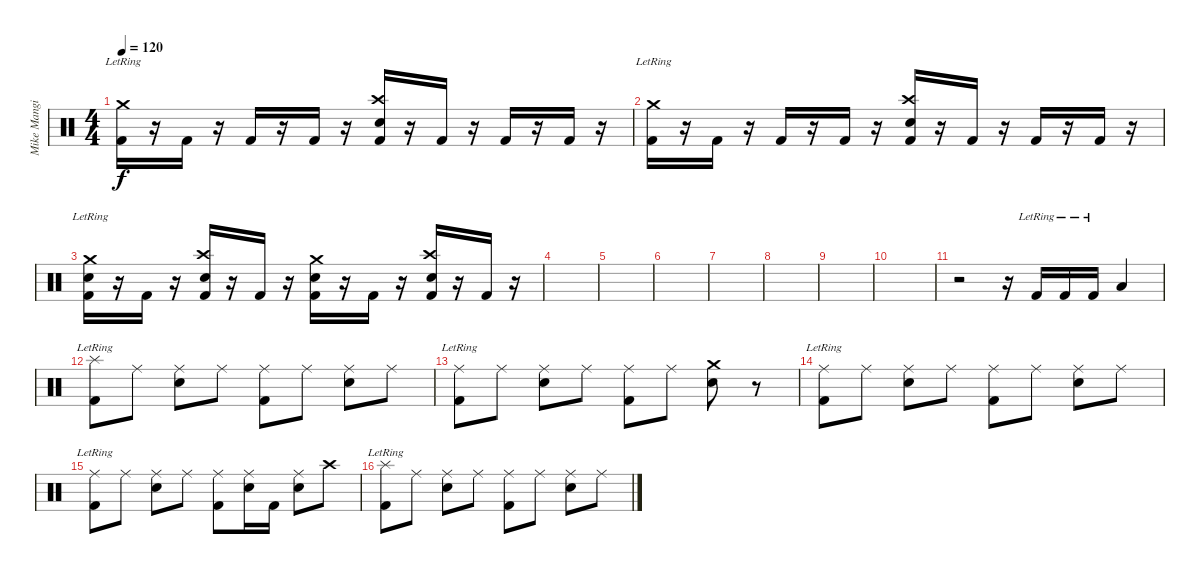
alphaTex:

\track ("Mike Mangini" "Mike Mangi") {instrument percussion}
\staff {score}
\articulation defaults
\ts (4 4)
\tempo 120
\clef neutral
\ks c
("Crash medium (hit)" "Kick (hit) 2"{lr}).16{dy f} r.16 "Kick (hit) 2".16 r.16 "Kick (hit) 2".16 r.16 "Kick (hit) 2".16 r.16 ("Crash high (hit)" "Snare (hit) 2" "Kick (hit) 2").16 r.16 "Kick (hit) 2".16 r.16 "Kick (hit) 2".16 r.16 "Kick (hit) 2".16 r.16 |
("Crash medium (hit)" "Kick (hit) 2"{lr}).16 r.16 "Kick (hit) 2".16 r.16 "Kick (hit) 2".16 r.16 "Kick (hit) 2".16 r.16 ("Crash high (hit)" "Snare (hit) 2" "Kick (hit) 2").16 r.16 "Kick (hit) 2".16 r.16 "Kick (hit) 2".16 r.16 "Kick (hit) 2".16 r.16 |
("Crash medium (hit)" "Snare (hit) 2" "Kick (hit) 2"{lr}).16 r.16 "Kick (hit) 2".16 r.16 ("Crash high (hit)" "Snare (hit) 2" "Kick (hit) 2").16 r.16 "Kick (hit) 2".16 r.16 ("Crash medium (hit)" "Snare (hit) 2" "Kick (hit) 2").16 r.16 "Kick (hit) 2".16 r.16 ("Crash high (hit)" "Snare (hit) 2" "Kick (hit) 2").16 r.16 "Kick (hit) 2".16 r.16 |
|
|
|
|
|
|
|
r.2 r.16 "Kick (hit) 2"{lr}.16 "Kick (hit) 2"{lr}.16 "Kick (hit) 2"{lr}.16 "Low Tom (hit)".4 |
("Splash (hit)" "Kick (hit) 2"{lr}).8 "Ride (middle)".8 ("Ride (middle)" "Snare (hit) 2").8 "Ride (middle)".8 ("Ride (middle)" "Kick (hit) 2").8 "Ride (middle)".8 ("Ride (middle)" "Snare (hit) 2").8 "Ride (middle)".8 |
("Ride (middle)" "Kick (hit) 2"{lr}).8 "Ride (middle)".8 ("Ride (middle)" "Snare (hit) 2").8 "Ride (middle)".8 ("Ride (middle)" "Kick (hit) 2").8 "Ride (middle)".8 ("Crash medium (hit)" "Snare (hit) 2").8 r.8 |
("Ride (middle)" "Kick (hit) 2"{lr}).8 "Ride (middle)".8 ("Ride (middle)" "Snare (hit) 2").8 "Ride (middle)".8 ("Ride (middle)" "Kick (hit) 2").8 "Ride (middle)".8 ("Ride (middle)" "Snare (hit) 2").8 "Ride (middle)".8 |
("Ride (middle)" "Kick (hit) 2"{lr}).8 "Ride (middle)".8 ("Ride (middle)" "Snare (hit) 2").8 "Ride (middle)".8 ("Ride (middle)" "Kick (hit) 2").8 ("Ride (middle)" "Snare (hit) 2").16 "Kick (hit) 2".16 ("Ride (middle)" "Snare (hit) 2").8 "Crash high (hit)".8 |
("Splash (hit)" "Kick (hit) 2"{lr}).8 "Ride (middle)".8 ("Ride (middle)" "Snare (hit) 2").8 "Ride (middle)".8 ("Ride (middle)" "Kick (hit) 2").8 "Ride (middle)".8 ("Ride (middle)" "Snare (hit) 2").8 "Ride (middle)".8
